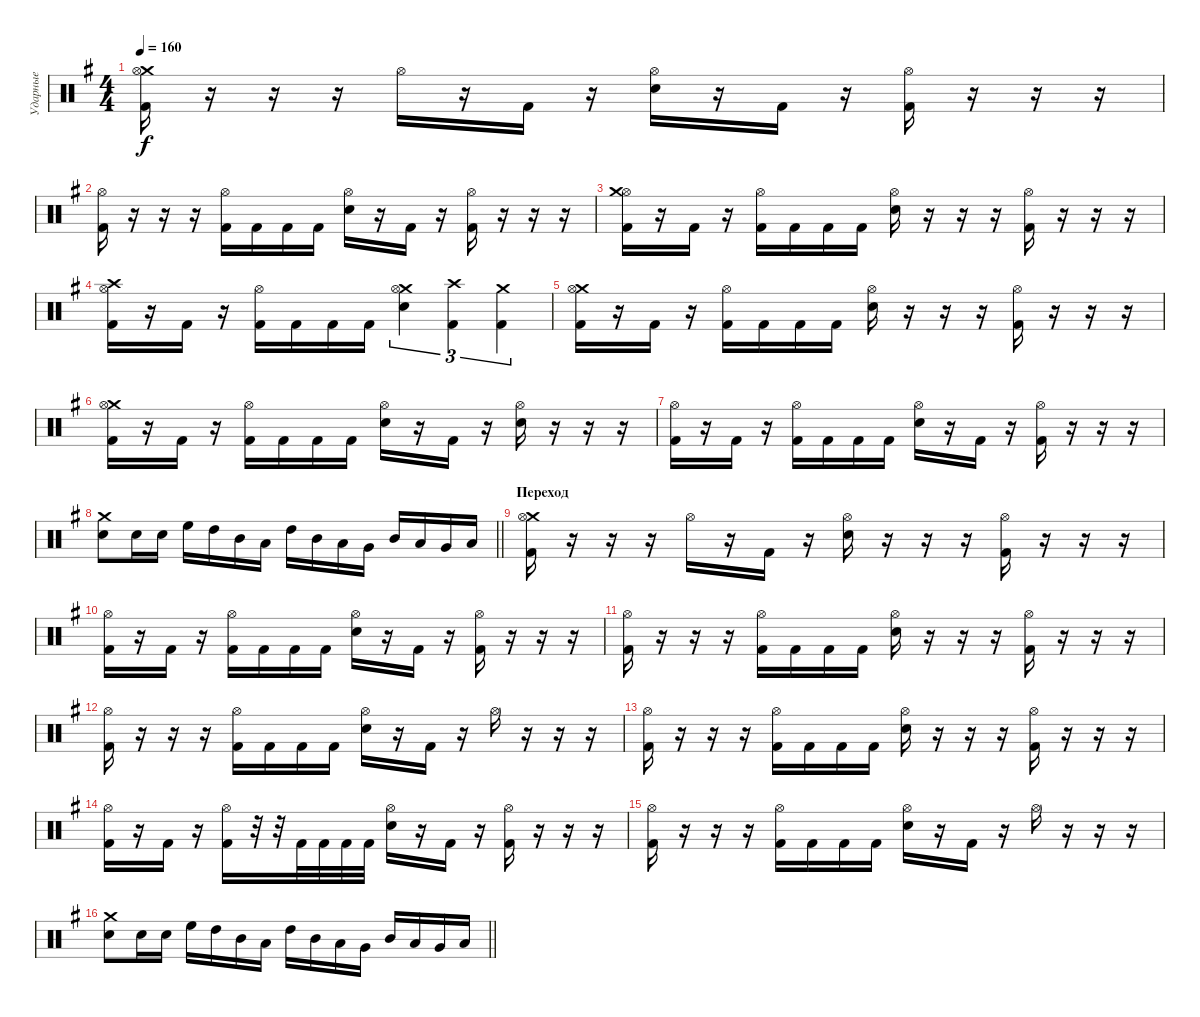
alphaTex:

\track ("Ударные" "Ударные") {instrument percussion}
\staff {score}
\articulation defaults
\ts (4 4)
\tempo 160
\clef neutral
\ks eminor
("Crash medium (hit)" "Kick (hit) 2" "Hi-Hat (open)").16{dy f} r.16 r.16 r.16 "Hi-Hat (open)".16 r.16 "Kick (hit) 2".16 r.16 ("Electric Snare (hit)" "Hi-Hat (open)").16 r.16 "Kick (hit) 2".16 r.16 ("Kick (hit) 2" "Hi-Hat (open)").16 r.16 r.16 r.16 |
("Kick (hit) 2" "Hi-Hat (open)").16 r.16 r.16 r.16 ("Kick (hit) 2" "Hi-Hat (open)").16 "Kick (hit) 2".16 "Kick (hit) 2".16 "Kick (hit) 2".16 ("Electric Snare (hit)" "Hi-Hat (open)").16 r.16 "Kick (hit) 2".16 r.16 ("Kick (hit) 2" "Hi-Hat (open)").16 r.16 r.16 r.16 |
("Kick (hit) 2" "Hi-Hat (open)" "Crash medium (hit)").16 r.16 "Kick (hit) 2".16 r.16 ("Kick (hit) 2" "Hi-Hat (open)").16 "Kick (hit) 2".16 "Kick (hit) 2".16 "Kick (hit) 2".16 ("Electric Snare (hit)" "Hi-Hat (open)").16 r.16 r.16 r.16 ("Kick (hit) 2" "Hi-Hat (open)").16 r.16 r.16 r.16 |
("Kick (hit) 2" "Hi-Hat (open)" "Crash high (hit)").16 r.16 "Kick (hit) 2".16 r.16 ("Kick (hit) 2" "Hi-Hat (open)").16 "Kick (hit) 2".16 "Kick (hit) 2".16 "Kick (hit) 2".16 ("Crash medium (hit)" "Electric Snare (hit)" "Hi-Hat (open)").4{tu (3 2)} ("Crash high (hit)" "Kick (hit) 2").4{tu (3 2)} ("Crash medium (hit)" "Kick (hit) 2").4{tu (3 2)} |
("Crash medium (hit)" "Kick (hit) 2" "Hi-Hat (open)").16 r.16 "Kick (hit) 2".16 r.16 ("Kick (hit) 2" "Hi-Hat (open)").16 "Kick (hit) 2".16 "Kick (hit) 2".16 "Kick (hit) 2".16 ("Electric Snare (hit)" "Hi-Hat (open)").16 r.16 r.16 r.16 ("Kick (hit) 2" "Hi-Hat (open)").16 r.16 r.16 r.16 |
("Crash medium (hit)" "Kick (hit) 2" "Hi-Hat (open)").16 r.16 "Kick (hit) 2".16 r.16 ("Kick (hit) 2" "Hi-Hat (open)").16 "Kick (hit) 2".16 "Kick (hit) 2".16 "Kick (hit) 2".16 ("Electric Snare (hit)" "Hi-Hat (open)").16 r.16 "Kick (hit) 2".16 r.16 ("Electric Snare (hit)" "Hi-Hat (open)").16 r.16 r.16 r.16 |
("Kick (hit) 2" "Hi-Hat (open)").16 r.16 "Kick (hit) 2".16 r.16 ("Kick (hit) 2" "Hi-Hat (open)").16 "Kick (hit) 2".16 "Kick (hit) 2".16 "Kick (hit) 2".16 ("Electric Snare (hit)" "Hi-Hat (open)").16 r.16 "Kick (hit) 2".16 r.16 ("Kick (hit) 2" "Hi-Hat (open)").16 r.16 r.16 r.16 |
\barLineRight lightlight
("Crash medium (hit)" "Electric Snare (hit)").8 "Electric Snare (hit)".16 "Electric Snare (hit)".16 "High Floor Tom (hit)".16 "High Tom (hit)".16 "Mid Tom (hit)".16 "Low Tom (hit)".16 "High Tom (hit)".16 "Mid Tom (hit)".16 "Low Tom (hit)".16 "Very Low Tom (hit)".16 "Mid Tom (hit)".16 "Low Tom (hit)".16 "Very Low Tom (hit)".16 "Low Floor Tom (hit)".16 |
\section ("" "Переход")
("Crash medium (hit)" "Kick (hit) 2" "Hi-Hat (open)").16 r.16 r.16 r.16 "Hi-Hat (open)".16 r.16 "Kick (hit) 2".16 r.16 ("Electric Snare (hit)" "Hi-Hat (open)").16 r.16 r.16 r.16 ("Kick (hit) 2" "Hi-Hat (open)").16 r.16 r.16 r.16 |
("Kick (hit) 2" "Hi-Hat (open)").16 r.16 "Kick (hit) 2".16 r.16 ("Kick (hit) 2" "Hi-Hat (open)").16 "Kick (hit) 2".16 "Kick (hit) 2".16 "Kick (hit) 2".16 ("Electric Snare (hit)" "Hi-Hat (open)").16 r.16 "Kick (hit) 2".16 r.16 ("Kick (hit) 2" "Hi-Hat (open)").16 r.16 r.16 r.16 |
("Kick (hit) 2" "Hi-Hat (open)").16 r.16 r.16 r.16 ("Kick (hit) 2" "Hi-Hat (open)").16 "Kick (hit) 2".16 "Kick (hit) 2".16 "Kick (hit) 2".16 ("Electric Snare (hit)" "Hi-Hat (open)").16 r.16 r.16 r.16 ("Kick (hit) 2" "Hi-Hat (open)").16 r.16 r.16 r.16 |
("Kick (hit) 2" "Hi-Hat (open)").16 r.16 r.16 r.16 ("Kick (hit) 2" "Hi-Hat (open)").16 "Kick (hit) 2".16 "Kick (hit) 2".16 "Kick (hit) 2".16 ("Electric Snare (hit)" "Hi-Hat (open)").16 r.16 "Kick (hit) 2".16 r.16 "Hi-Hat (open)".16 r.16 r.16 r.16 |
("Kick (hit) 2" "Hi-Hat (open)").16 r.16 r.16 r.16 ("Kick (hit) 2" "Hi-Hat (open)").16 "Kick (hit) 2".16 "Kick (hit) 2".16 "Kick (hit) 2".16 ("Electric Snare (hit)" "Hi-Hat (open)").16 r.16 r.16 r.16 ("Kick (hit) 2" "Hi-Hat (open)").16 r.16 r.16 r.16 |
("Kick (hit) 2" "Hi-Hat (open)").16 r.16 "Kick (hit) 2".16 r.16 ("Kick (hit) 2" "Hi-Hat (open)").16 r.32 r.32 "Kick (hit) 2".32 "Kick (hit) 2".32 "Kick (hit) 2".32 "Kick (hit) 2".32 ("Electric Snare (hit)" "Hi-Hat (open)").16 r.16 "Kick (hit) 2".16 r.16 ("Kick (hit) 2" "Hi-Hat (open)").16 r.16 r.16 r.16 |
("Kick (hit) 2" "Hi-Hat (open)").16 r.16 r.16 r.16 ("Kick (hit) 2" "Hi-Hat (open)").16 "Kick (hit) 2".16 "Kick (hit) 2".16 "Kick (hit) 2".16 ("Electric Snare (hit)" "Hi-Hat (open)").16 r.16 "Kick (hit) 2".16 r.16 "Hi-Hat (open)".16 r.16 r.16 r.16 |
\barLineRight lightlight
("Crash medium (hit)" "Electric Snare (hit)").8 "Electric Snare (hit)".16 "Electric Snare (hit)".16 "High Floor Tom (hit)".16 "High Tom (hit)".16 "Mid Tom (hit)".16 "Low Tom (hit)".16 "High Tom (hit)".16 "Mid Tom (hit)".16 "Low Tom (hit)".16 "Very Low Tom (hit)".16 "Mid Tom (hit)".16 "Low Tom (hit)".16 "Very Low Tom (hit)".16 "Low Floor Tom (hit)".16
